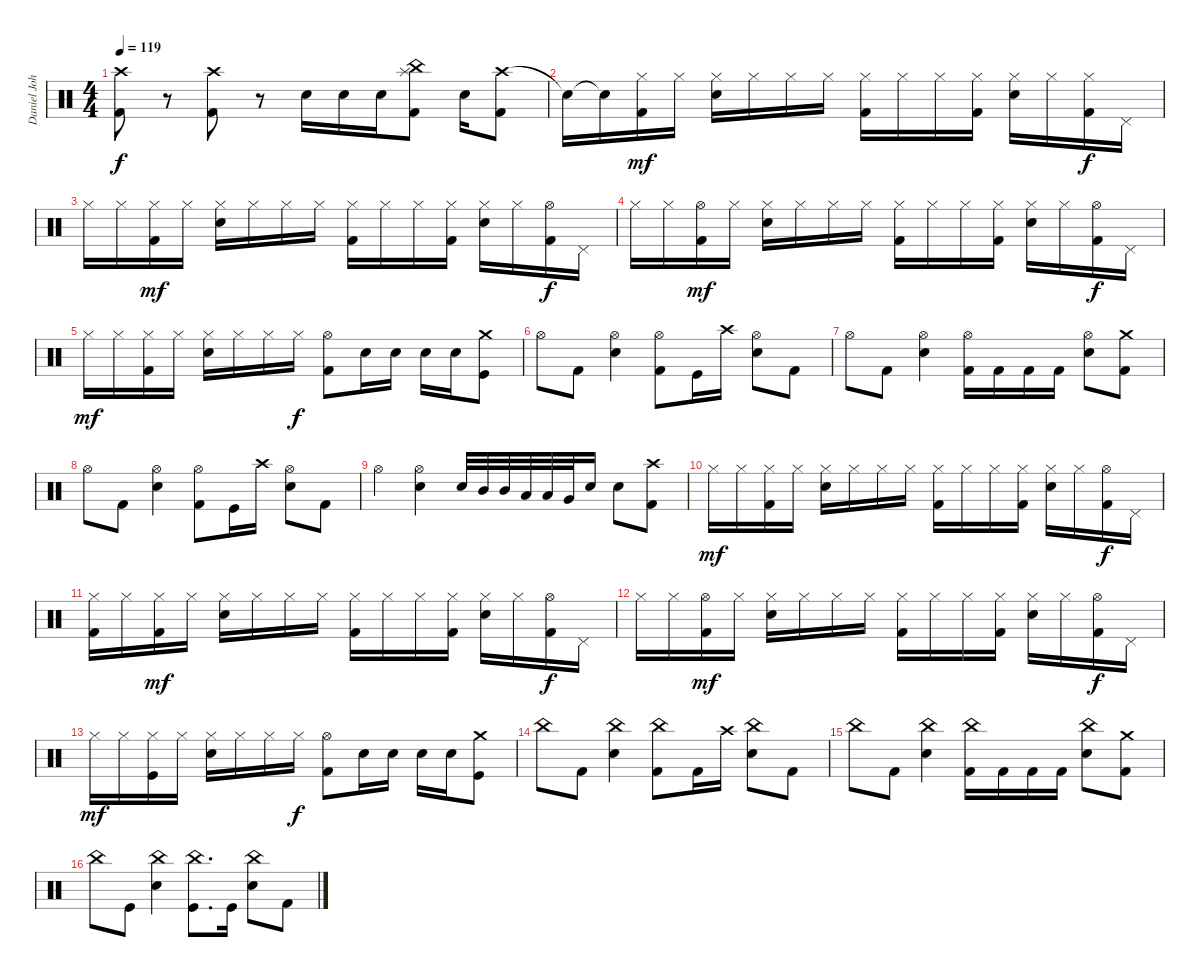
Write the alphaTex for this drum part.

\track ("Daniel John Erlandson (Drums)" "Daniel Joh") {instrument percussion}
\staff {score}
\articulation defaults
\ts (4 4)
\tempo 119
\clef neutral
\ks c
("Crash high (hit)" "Kick (hit) 2").8{dy f} r.8{volume 0} ("Crash high (hit)" "Kick (hit) 2").8{volume 16} r.8{volume 0} "Snare (hit) 2".16{volume 16} "Snare (hit) 2".16 "Snare (hit) 2".16 ("Splash (hit)" "China (hit)" "Kick (hit) 2").8 "Snare (hit) 2".16 ("Crash high (hit)" "Kick (hit) 2").8 |
"Snare (hit)"{t}.16 "Snare (hit)"{t}.16 ("Kick (hit) 2" "Hi-Hat (closed)").16{dy mf} "Hi-Hat (closed)".16 ("Snare (hit) 2" "Hi-Hat (closed)").16 "Hi-Hat (closed)".16 "Hi-Hat (closed)".16 "Hi-Hat (closed)".16 ("Kick (hit) 2" "Hi-Hat (closed)").16 "Hi-Hat (closed)".16 "Hi-Hat (closed)".16 ("Kick (hit) 2" "Hi-Hat (closed)").16 ("Snare (hit) 2" "Hi-Hat (closed)").16 "Hi-Hat (closed)".16 ("Kick (hit) 2" "Hi-Hat (closed)").16{dy f} "Pedal Hi-Hat (hit)".16 |
"Hi-Hat (closed)".16 "Hi-Hat (closed)".16 ("Kick (hit) 2" "Hi-Hat (closed)").16{dy mf} "Hi-Hat (closed)".16 ("Snare (hit) 2" "Hi-Hat (closed)").16 "Hi-Hat (closed)".16 "Hi-Hat (closed)".16 "Hi-Hat (closed)".16 ("Kick (hit) 2" "Hi-Hat (closed)").16 "Hi-Hat (closed)".16 "Hi-Hat (closed)".16 ("Kick (hit) 2" "Hi-Hat (closed)").16 ("Snare (hit) 2" "Hi-Hat (closed)").16 "Hi-Hat (closed)".16 ("Kick (hit) 2" "Hi-Hat (open)").16{dy f} "Pedal Hi-Hat (hit)".16 |
"Hi-Hat (closed)".16 "Hi-Hat (closed)".16 ("Kick (hit) 2" "Hi-Hat (open)").16{dy mf} "Hi-Hat (closed)".16 ("Snare (hit) 2" "Hi-Hat (closed)").16 "Hi-Hat (closed)".16 "Hi-Hat (closed)".16 "Hi-Hat (closed)".16 ("Kick (hit) 2" "Hi-Hat (closed)").16 "Hi-Hat (closed)".16 "Hi-Hat (closed)".16 ("Kick (hit) 2" "Hi-Hat (closed)").16 ("Snare (hit) 2" "Hi-Hat (closed)").16 "Hi-Hat (closed)".16 ("Kick (hit) 2" "Hi-Hat (open)").16{dy f} "Pedal Hi-Hat (hit)".16 |
"Hi-Hat (closed)".16{dy mf} "Hi-Hat (closed)".16 ("Kick (hit) 2" "Hi-Hat (closed)").16 "Hi-Hat (closed)".16 ("Snare (hit) 2" "Hi-Hat (closed)").16 "Hi-Hat (closed)".16 "Hi-Hat (closed)".16 "Hi-Hat (closed)".16{dy f} ("Kick (hit) 2" "Hi-Hat (open)").8 "Snare (hit) 2".16 "Snare (hit) 2".16 "Snare (hit) 2".16 "Snare (hit) 2".16 ("Kick (hit)" "Crash medium (hit)").8 |
"Hi-Hat (open)".8 "Kick (hit) 2".8 ("Snare (hit) 2" "Hi-Hat (open)").4 ("Kick (hit) 2" "Hi-Hat (open)").8 "Kick (hit)".16 "Crash high (hit)".16 ("Snare (hit) 2" "Hi-Hat (open)").8 "Kick (hit) 2".8 |
"Hi-Hat (open)".8 "Kick (hit) 2".8 ("Snare (hit) 2" "Hi-Hat (open)").4 ("Kick (hit) 2" "Hi-Hat (open)").16 "Kick (hit) 2".16 "Kick (hit) 2".16 "Kick (hit) 2".16 ("Snare (hit) 2" "Hi-Hat (open)").8 ("Kick (hit) 2" "Crash medium (hit)").8 |
"Hi-Hat (open)".8 "Kick (hit) 2".8 ("Snare (hit) 2" "Hi-Hat (open)").4 ("Kick (hit) 2" "Hi-Hat (open)").8 "Kick (hit)".16 "Crash high (hit)".16 ("Snare (hit) 2" "Hi-Hat (open)").8 "Kick (hit) 2".8 |
"Hi-Hat (open)".4 ("Snare (hit) 2" "Hi-Hat (open)").4 "Snare (hit) 2".32 "Mid Tom (hit)".32 "Mid Tom (hit)".32 "Low Tom (hit)".32 "Low Tom (hit)".32 "Very Low Tom (hit)".32 "Snare (hit) 2".16 "Snare (hit) 2".8 ("Crash high (hit)" "Kick (hit) 2").8 |
"Hi-Hat (closed)".16{dy mf} "Hi-Hat (closed)".16 ("Kick (hit) 2" "Hi-Hat (closed)").16 "Hi-Hat (closed)".16 ("Snare (hit) 2" "Hi-Hat (closed)").16 "Hi-Hat (closed)".16 "Hi-Hat (closed)".16 "Hi-Hat (closed)".16 ("Kick (hit) 2" "Hi-Hat (closed)").16 "Hi-Hat (closed)".16 "Hi-Hat (closed)".16 ("Kick (hit) 2" "Hi-Hat (closed)").16 ("Snare (hit) 2" "Hi-Hat (closed)").16 "Hi-Hat (closed)".16 ("Kick (hit) 2" "Hi-Hat (open)").16{dy f} "Pedal Hi-Hat (hit)".16 |
("Hi-Hat (closed)" "Kick (hit) 2").16 "Hi-Hat (closed)".16 ("Kick (hit) 2" "Hi-Hat (closed)").16{dy mf} "Hi-Hat (closed)".16 ("Snare (hit) 2" "Hi-Hat (closed)").16 "Hi-Hat (closed)".16 "Hi-Hat (closed)".16 "Hi-Hat (closed)".16 ("Kick (hit) 2" "Hi-Hat (closed)").16 "Hi-Hat (closed)".16 "Hi-Hat (closed)".16 ("Kick (hit) 2" "Hi-Hat (closed)").16 ("Snare (hit) 2" "Hi-Hat (closed)").16 "Hi-Hat (closed)".16 ("Kick (hit) 2" "Hi-Hat (open)").16{dy f} "Pedal Hi-Hat (hit)".16 |
"Hi-Hat (closed)".16 "Hi-Hat (closed)".16 ("Kick (hit) 2" "Hi-Hat (open)").16{dy mf} "Hi-Hat (closed)".16 ("Snare (hit) 2" "Hi-Hat (closed)").16 "Hi-Hat (closed)".16 "Hi-Hat (closed)".16 "Hi-Hat (closed)".16 ("Kick (hit) 2" "Hi-Hat (closed)").16 "Hi-Hat (closed)".16 "Hi-Hat (closed)".16 ("Kick (hit) 2" "Hi-Hat (closed)").16 ("Snare (hit) 2" "Hi-Hat (closed)").16 "Hi-Hat (closed)".16 ("Kick (hit) 2" "Hi-Hat (open)").16{dy f} "Pedal Hi-Hat (hit)".16 |
"Hi-Hat (closed)".16{dy mf} "Hi-Hat (closed)".16 ("Kick (hit)" "Hi-Hat (closed)").16 "Hi-Hat (closed)".16 ("Snare (hit) 2" "Hi-Hat (closed)").16 "Hi-Hat (closed)".16 "Hi-Hat (closed)".16 "Hi-Hat (closed)".16{dy f} ("Kick (hit) 2" "Hi-Hat (open)").8 "Snare (hit) 2".16 "Snare (hit) 2".16 "Snare (hit) 2".16 "Snare (hit) 2".16 ("Kick (hit)" "Crash medium (hit)").8 |
"China (hit)".8 "Kick (hit) 2".8 ("Snare (hit) 2" "China (hit)").4 ("Kick (hit) 2" "China (hit)").8 "Kick (hit) 2".16 "Crash high (hit)".16 ("Snare (hit) 2" "China (hit)").8 "Kick (hit) 2".8 |
"China (hit)".8 "Kick (hit) 2".8 ("Snare (hit) 2" "China (hit)").4 ("Kick (hit) 2" "China (hit)").16 "Kick (hit) 2".16 "Kick (hit) 2".16 "Kick (hit) 2".16 ("Snare (hit) 2" "China (hit)").8 ("Kick (hit) 2" "Crash medium (hit)").8 |
"China (hit)".8 "Kick (hit)".8 ("Snare (hit) 2" "China (hit)").4 ("Kick (hit)" "China (hit)").8{d} "Kick (hit)".16 ("China (hit)" "Snare (hit) 2").8 "Kick (hit) 2".8
